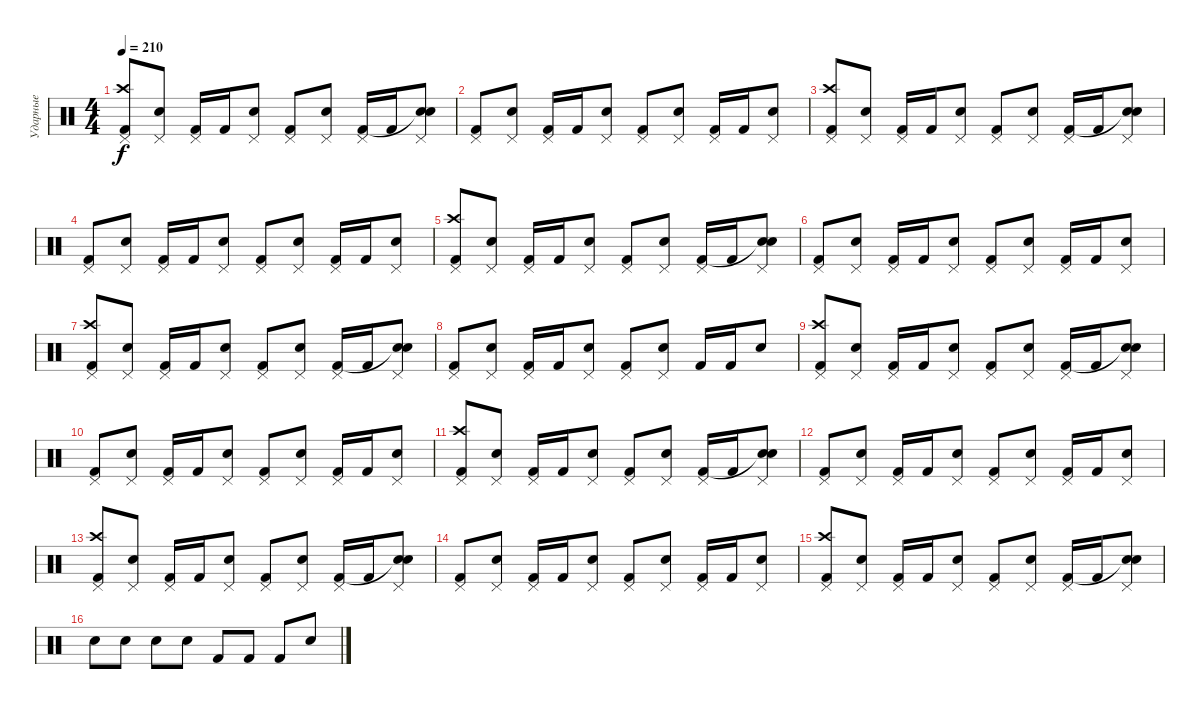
\track ("Ударные" "Ударные") {instrument percussion}
\staff {score}
\articulation defaults
\ts (4 4)
\tempo 210
\clef neutral
\ks c
("Pedal Hi-Hat (hit)" "Crash high (hit)" "Kick (hit) 2").8{dy f} ("Pedal Hi-Hat (hit)" "Snare (hit) 2").8 ("Pedal Hi-Hat (hit)" "Kick (hit) 2").16 "Kick (hit) 2".16 ("Pedal Hi-Hat (hit)" "Snare (hit) 2").8 ("Pedal Hi-Hat (hit)" "Kick (hit) 2").8 ("Pedal Hi-Hat (hit)" "Snare (hit) 2").8 ("Pedal Hi-Hat (hit)" "Kick (hit) 2").16 "Kick (hit) 2".16 ("Pedal Hi-Hat (hit)" "Snare (hit)"{t} "Snare (hit) 2").8 |
("Pedal Hi-Hat (hit)" "Kick (hit) 2").8 ("Pedal Hi-Hat (hit)" "Snare (hit) 2").8 ("Pedal Hi-Hat (hit)" "Kick (hit) 2").16 "Kick (hit) 2".16 ("Pedal Hi-Hat (hit)" "Snare (hit) 2").8 ("Pedal Hi-Hat (hit)" "Kick (hit) 2").8 ("Pedal Hi-Hat (hit)" "Snare (hit) 2").8 ("Pedal Hi-Hat (hit)" "Kick (hit) 2").16 "Kick (hit) 2".16 ("Pedal Hi-Hat (hit)" "Snare (hit) 2").8 |
("Pedal Hi-Hat (hit)" "Crash high (hit)" "Kick (hit) 2").8 ("Pedal Hi-Hat (hit)" "Snare (hit) 2").8 ("Pedal Hi-Hat (hit)" "Kick (hit) 2").16 "Kick (hit) 2".16 ("Pedal Hi-Hat (hit)" "Snare (hit) 2").8 ("Pedal Hi-Hat (hit)" "Kick (hit) 2").8 ("Pedal Hi-Hat (hit)" "Snare (hit) 2").8 ("Pedal Hi-Hat (hit)" "Kick (hit) 2").16 "Kick (hit) 2".16 ("Pedal Hi-Hat (hit)" "Snare (hit)"{t} "Snare (hit) 2").8 |
("Pedal Hi-Hat (hit)" "Kick (hit) 2").8 ("Pedal Hi-Hat (hit)" "Snare (hit) 2").8 ("Pedal Hi-Hat (hit)" "Kick (hit) 2").16 "Kick (hit) 2".16 ("Pedal Hi-Hat (hit)" "Snare (hit) 2").8 ("Pedal Hi-Hat (hit)" "Kick (hit) 2").8 ("Pedal Hi-Hat (hit)" "Snare (hit) 2").8 ("Pedal Hi-Hat (hit)" "Kick (hit) 2").16 "Kick (hit) 2".16 ("Pedal Hi-Hat (hit)" "Snare (hit) 2").8 |
("Pedal Hi-Hat (hit)" "Crash high (hit)" "Kick (hit) 2").8 ("Pedal Hi-Hat (hit)" "Snare (hit) 2").8 ("Pedal Hi-Hat (hit)" "Kick (hit) 2").16 "Kick (hit) 2".16 ("Pedal Hi-Hat (hit)" "Snare (hit) 2").8 ("Pedal Hi-Hat (hit)" "Kick (hit) 2").8 ("Pedal Hi-Hat (hit)" "Snare (hit) 2").8 ("Pedal Hi-Hat (hit)" "Kick (hit) 2").16 "Kick (hit) 2".16 ("Pedal Hi-Hat (hit)" "Snare (hit)"{t} "Snare (hit) 2").8 |
("Pedal Hi-Hat (hit)" "Kick (hit) 2").8 ("Pedal Hi-Hat (hit)" "Snare (hit) 2").8 ("Pedal Hi-Hat (hit)" "Kick (hit) 2").16 "Kick (hit) 2".16 ("Pedal Hi-Hat (hit)" "Snare (hit) 2").8 ("Pedal Hi-Hat (hit)" "Kick (hit) 2").8 ("Pedal Hi-Hat (hit)" "Snare (hit) 2").8 ("Pedal Hi-Hat (hit)" "Kick (hit) 2").16 "Kick (hit) 2".16 ("Pedal Hi-Hat (hit)" "Snare (hit) 2").8 |
("Pedal Hi-Hat (hit)" "Crash high (hit)" "Kick (hit) 2").8 ("Pedal Hi-Hat (hit)" "Snare (hit) 2").8 ("Pedal Hi-Hat (hit)" "Kick (hit) 2").16 "Kick (hit) 2".16 ("Pedal Hi-Hat (hit)" "Snare (hit) 2").8 ("Pedal Hi-Hat (hit)" "Kick (hit) 2").8 ("Pedal Hi-Hat (hit)" "Snare (hit) 2").8 ("Pedal Hi-Hat (hit)" "Kick (hit) 2").16 "Kick (hit) 2".16 ("Pedal Hi-Hat (hit)" "Snare (hit)"{t} "Snare (hit) 2").8 |
("Pedal Hi-Hat (hit)" "Kick (hit) 2").8 ("Pedal Hi-Hat (hit)" "Snare (hit) 2").8 ("Pedal Hi-Hat (hit)" "Kick (hit) 2").16 "Kick (hit) 2".16 ("Pedal Hi-Hat (hit)" "Snare (hit) 2").8 ("Pedal Hi-Hat (hit)" "Kick (hit) 2").8 ("Pedal Hi-Hat (hit)" "Snare (hit) 2").8 "Kick (hit) 2".16 "Kick (hit) 2".16 "Snare (hit) 2".8 |
("Pedal Hi-Hat (hit)" "Crash high (hit)" "Kick (hit) 2").8 ("Pedal Hi-Hat (hit)" "Snare (hit) 2").8 ("Pedal Hi-Hat (hit)" "Kick (hit) 2").16 "Kick (hit) 2".16 ("Pedal Hi-Hat (hit)" "Snare (hit) 2").8 ("Pedal Hi-Hat (hit)" "Kick (hit) 2").8 ("Pedal Hi-Hat (hit)" "Snare (hit) 2").8 ("Pedal Hi-Hat (hit)" "Kick (hit) 2").16 "Kick (hit) 2".16 ("Pedal Hi-Hat (hit)" "Snare (hit)"{t} "Snare (hit) 2").8 |
("Pedal Hi-Hat (hit)" "Kick (hit) 2").8 ("Pedal Hi-Hat (hit)" "Snare (hit) 2").8 ("Pedal Hi-Hat (hit)" "Kick (hit) 2").16 "Kick (hit) 2".16 ("Pedal Hi-Hat (hit)" "Snare (hit) 2").8 ("Pedal Hi-Hat (hit)" "Kick (hit) 2").8 ("Pedal Hi-Hat (hit)" "Snare (hit) 2").8 ("Pedal Hi-Hat (hit)" "Kick (hit) 2").16 "Kick (hit) 2".16 ("Pedal Hi-Hat (hit)" "Snare (hit) 2").8 |
("Pedal Hi-Hat (hit)" "Crash high (hit)" "Kick (hit) 2").8 ("Pedal Hi-Hat (hit)" "Snare (hit) 2").8 ("Pedal Hi-Hat (hit)" "Kick (hit) 2").16 "Kick (hit) 2".16 ("Pedal Hi-Hat (hit)" "Snare (hit) 2").8 ("Pedal Hi-Hat (hit)" "Kick (hit) 2").8 ("Pedal Hi-Hat (hit)" "Snare (hit) 2").8 ("Pedal Hi-Hat (hit)" "Kick (hit) 2").16 "Kick (hit) 2".16 ("Pedal Hi-Hat (hit)" "Snare (hit)"{t} "Snare (hit) 2").8 |
("Pedal Hi-Hat (hit)" "Kick (hit) 2").8 ("Pedal Hi-Hat (hit)" "Snare (hit) 2").8 ("Pedal Hi-Hat (hit)" "Kick (hit) 2").16 "Kick (hit) 2".16 ("Pedal Hi-Hat (hit)" "Snare (hit) 2").8 ("Pedal Hi-Hat (hit)" "Kick (hit) 2").8 ("Pedal Hi-Hat (hit)" "Snare (hit) 2").8 ("Pedal Hi-Hat (hit)" "Kick (hit) 2").16 "Kick (hit) 2".16 ("Pedal Hi-Hat (hit)" "Snare (hit) 2").8 |
("Pedal Hi-Hat (hit)" "Crash high (hit)" "Kick (hit) 2").8 ("Pedal Hi-Hat (hit)" "Snare (hit) 2").8 ("Pedal Hi-Hat (hit)" "Kick (hit) 2").16 "Kick (hit) 2".16 ("Pedal Hi-Hat (hit)" "Snare (hit) 2").8 ("Pedal Hi-Hat (hit)" "Kick (hit) 2").8 ("Pedal Hi-Hat (hit)" "Snare (hit) 2").8 ("Pedal Hi-Hat (hit)" "Kick (hit) 2").16 "Kick (hit) 2".16 ("Pedal Hi-Hat (hit)" "Snare (hit)"{t} "Snare (hit) 2").8 |
("Pedal Hi-Hat (hit)" "Kick (hit) 2").8 ("Pedal Hi-Hat (hit)" "Snare (hit) 2").8 ("Pedal Hi-Hat (hit)" "Kick (hit) 2").16 "Kick (hit) 2".16 ("Pedal Hi-Hat (hit)" "Snare (hit) 2").8 ("Pedal Hi-Hat (hit)" "Kick (hit) 2").8 ("Pedal Hi-Hat (hit)" "Snare (hit) 2").8 ("Pedal Hi-Hat (hit)" "Kick (hit) 2").16 "Kick (hit) 2".16 ("Pedal Hi-Hat (hit)" "Snare (hit) 2").8 |
("Pedal Hi-Hat (hit)" "Crash high (hit)" "Kick (hit) 2").8 ("Pedal Hi-Hat (hit)" "Snare (hit) 2").8 ("Pedal Hi-Hat (hit)" "Kick (hit) 2").16 "Kick (hit) 2".16 ("Pedal Hi-Hat (hit)" "Snare (hit) 2").8 ("Pedal Hi-Hat (hit)" "Kick (hit) 2").8 ("Pedal Hi-Hat (hit)" "Snare (hit) 2").8 ("Pedal Hi-Hat (hit)" "Kick (hit) 2").16 "Kick (hit) 2".16 ("Pedal Hi-Hat (hit)" "Snare (hit)"{t} "Snare (hit) 2").8 |
"Snare (hit) 2".8 "Snare (hit) 2".8 "Snare (hit) 2".8 "Snare (hit) 2".8 "Kick (hit) 2".8 "Kick (hit) 2".8 "Kick (hit) 2".8 "Snare (hit) 2".8
